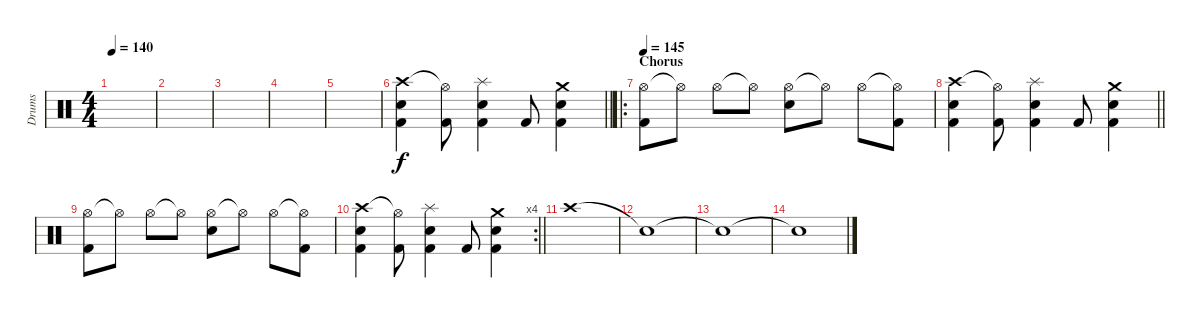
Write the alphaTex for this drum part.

\track ("Drums" "Drums") {instrument percussion}
\staff {score}
\articulation defaults
\ts (4 4)
\tempo 140
\clef neutral
\ks c
|
|
|
|
|
\barLineRight lightlight
("Crash high (hit)" "Snare (hit) 2" "Kick (hit) 2").4 ("Hi-Hat (open)"{t} "Kick (hit) 2").8 ("Splash (hit)" "Snare (hit) 2" "Kick (hit) 2").4 "Kick (hit) 2".8 ("Crash medium (hit)" "Snare (hit) 2" "Kick (hit) 2").4 |
\ro
\section ("" "Chorus")
\tempo 145
("Hi-Hat (open)" "Kick (hit) 2").8 "Hi-Hat (open)"{t}.8 "Hi-Hat (open)".8 "Hi-Hat (open)"{t}.8 ("Hi-Hat (open)" "Snare (hit) 2").8 "Hi-Hat (open)"{t}.8 "Hi-Hat (open)".8 ("Hi-Hat (open)"{t} "Kick (hit) 2").8 |
\barLineRight lightlight
("Crash high (hit)" "Snare (hit) 2" "Kick (hit) 2").4 ("Hi-Hat (open)"{t} "Kick (hit) 2").8 ("Splash (hit)" "Snare (hit) 2" "Kick (hit) 2").4 "Kick (hit) 2".8 ("Crash medium (hit)" "Snare (hit) 2" "Kick (hit) 2").4 |
("Hi-Hat (open)" "Kick (hit) 2").8 "Hi-Hat (open)"{t}.8 "Hi-Hat (open)".8 "Hi-Hat (open)"{t}.8 ("Hi-Hat (open)" "Snare (hit) 2").8 "Hi-Hat (open)"{t}.8 "Hi-Hat (open)".8 ("Hi-Hat (open)"{t} "Kick (hit) 2").8 |
\rc 4
\barLineRight lightlight
("Crash high (hit)" "Snare (hit) 2" "Kick (hit) 2").4 ("Hi-Hat (open)"{t} "Kick (hit) 2").8 ("Splash (hit)" "Snare (hit) 2" "Kick (hit) 2").4 "Kick (hit) 2".8 ("Crash medium (hit)" "Snare (hit) 2" "Kick (hit) 2").4 |
"Crash high (hit)".1 |
"Snare (hit)"{t}.1 |
"Snare (hit)"{t}.1 |
"Snare (hit)"{t}.1
